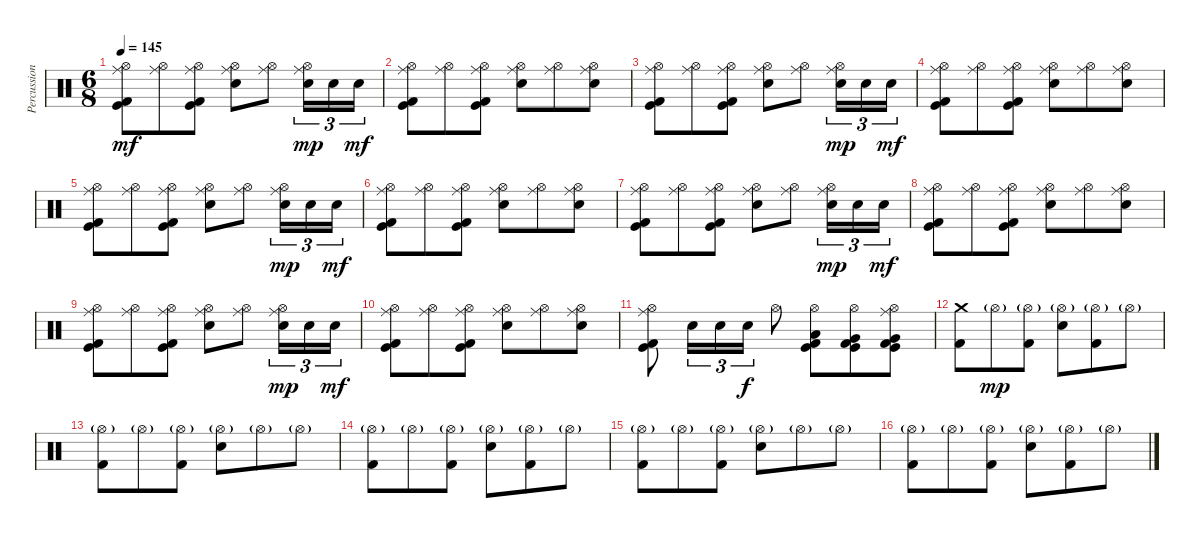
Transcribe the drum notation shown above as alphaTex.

\track ("Percussion" "Percussion") {instrument percussion}
\staff {score}
\articulation defaults
\ts (6 8)
\tempo 145
\clef neutral
\ks c
("Ride (middle)" "Hi-Hat (open)" "Kick (hit)" "Kick (hit) 2").8{dy mf} ("Ride (middle)" "Hi-Hat (open)").8 ("Ride (middle)" "Hi-Hat (open)" "Kick (hit)" "Kick (hit) 2").8 ("Ride (middle)" "Hi-Hat (open)" "Electric Snare (hit)").8 ("Ride (middle)" "Hi-Hat (open)").8 ("Ride (middle)" "Hi-Hat (open)" "Electric Snare (hit)").16{tu (3 2) dy mp} "Electric Snare (hit)".16{tu (3 2)} "Electric Snare (hit)".16{tu (3 2) dy mf} |
("Ride (middle)" "Hi-Hat (open)" "Kick (hit)" "Kick (hit) 2").8 ("Ride (middle)" "Hi-Hat (open)").8 ("Ride (middle)" "Hi-Hat (open)" "Kick (hit)" "Kick (hit) 2").8 ("Ride (middle)" "Hi-Hat (open)" "Electric Snare (hit)").8 ("Ride (middle)" "Hi-Hat (open)").8 ("Ride (middle)" "Hi-Hat (open)" "Electric Snare (hit)").8 |
("Ride (middle)" "Hi-Hat (open)" "Kick (hit)" "Kick (hit) 2").8 ("Ride (middle)" "Hi-Hat (open)").8 ("Ride (middle)" "Hi-Hat (open)" "Kick (hit)" "Kick (hit) 2").8 ("Ride (middle)" "Hi-Hat (open)" "Electric Snare (hit)").8 ("Ride (middle)" "Hi-Hat (open)").8 ("Ride (middle)" "Hi-Hat (open)" "Electric Snare (hit)").16{tu (3 2) dy mp} "Electric Snare (hit)".16{tu (3 2)} "Electric Snare (hit)".16{tu (3 2) dy mf} |
("Ride (middle)" "Hi-Hat (open)" "Kick (hit)" "Kick (hit) 2").8 ("Ride (middle)" "Hi-Hat (open)").8 ("Ride (middle)" "Hi-Hat (open)" "Kick (hit)" "Kick (hit) 2").8 ("Ride (middle)" "Hi-Hat (open)" "Electric Snare (hit)").8 ("Ride (middle)" "Hi-Hat (open)").8 ("Ride (middle)" "Hi-Hat (open)" "Electric Snare (hit)").8 |
("Ride (middle)" "Hi-Hat (open)" "Kick (hit)" "Kick (hit) 2").8 ("Ride (middle)" "Hi-Hat (open)").8 ("Ride (middle)" "Hi-Hat (open)" "Kick (hit)" "Kick (hit) 2").8 ("Ride (middle)" "Hi-Hat (open)" "Electric Snare (hit)").8 ("Ride (middle)" "Hi-Hat (open)").8 ("Ride (middle)" "Hi-Hat (open)" "Electric Snare (hit)").16{tu (3 2) dy mp} "Electric Snare (hit)".16{tu (3 2)} "Electric Snare (hit)".16{tu (3 2) dy mf} |
("Ride (middle)" "Hi-Hat (open)" "Kick (hit)" "Kick (hit) 2").8 ("Ride (middle)" "Hi-Hat (open)").8 ("Ride (middle)" "Hi-Hat (open)" "Kick (hit)" "Kick (hit) 2").8 ("Ride (middle)" "Hi-Hat (open)" "Electric Snare (hit)").8 ("Ride (middle)" "Hi-Hat (open)").8 ("Ride (middle)" "Hi-Hat (open)" "Electric Snare (hit)").8 |
("Ride (middle)" "Hi-Hat (open)" "Kick (hit)" "Kick (hit) 2").8 ("Ride (middle)" "Hi-Hat (open)").8 ("Ride (middle)" "Hi-Hat (open)" "Kick (hit)" "Kick (hit) 2").8 ("Ride (middle)" "Hi-Hat (open)" "Electric Snare (hit)").8 ("Ride (middle)" "Hi-Hat (open)").8 ("Ride (middle)" "Hi-Hat (open)" "Electric Snare (hit)").16{tu (3 2) dy mp} "Electric Snare (hit)".16{tu (3 2)} "Electric Snare (hit)".16{tu (3 2) dy mf} |
("Ride (middle)" "Hi-Hat (open)" "Kick (hit)" "Kick (hit) 2").8 ("Ride (middle)" "Hi-Hat (open)").8 ("Ride (middle)" "Hi-Hat (open)" "Kick (hit)" "Kick (hit) 2").8 ("Ride (middle)" "Hi-Hat (open)" "Electric Snare (hit)").8 ("Ride (middle)" "Hi-Hat (open)").8 ("Ride (middle)" "Hi-Hat (open)" "Electric Snare (hit)").8 |
("Ride (middle)" "Hi-Hat (open)" "Kick (hit)" "Kick (hit) 2").8 ("Ride (middle)" "Hi-Hat (open)").8 ("Ride (middle)" "Hi-Hat (open)" "Kick (hit)" "Kick (hit) 2").8 ("Ride (middle)" "Hi-Hat (open)" "Electric Snare (hit)").8 ("Ride (middle)" "Hi-Hat (open)").8 ("Ride (middle)" "Hi-Hat (open)" "Electric Snare (hit)").16{tu (3 2) dy mp} "Electric Snare (hit)".16{tu (3 2)} "Electric Snare (hit)".16{tu (3 2) dy mf} |
("Ride (middle)" "Hi-Hat (open)" "Kick (hit)" "Kick (hit) 2").8 ("Ride (middle)" "Hi-Hat (open)").8 ("Ride (middle)" "Hi-Hat (open)" "Kick (hit)" "Kick (hit) 2").8 ("Ride (middle)" "Hi-Hat (open)" "Electric Snare (hit)").8 ("Ride (middle)" "Hi-Hat (open)").8 ("Ride (middle)" "Hi-Hat (open)" "Electric Snare (hit)").8 |
("Ride (middle)" "Hi-Hat (open)" "Kick (hit)" "Kick (hit) 2").8 "Electric Snare (hit)".16{tu (3 2)} "Electric Snare (hit)".16{tu (3 2)} "Electric Snare (hit)".16{tu (3 2) dy f} "Hi-Hat (open)".8 ("Hi-Hat (open)" "Low Tom (hit)" "Kick (hit)" "Kick (hit) 2").8 ("Hi-Hat (open)" "Very Low Tom (hit)" "Kick (hit)" "Kick (hit) 2").8 ("Ride (middle)" "Hi-Hat (open)" "Very Low Tom (hit)" "Kick (hit)" "Kick (hit) 2").8 |
("Crash medium (hit)" "Kick (hit) 2").8 "Hi-Hat (open)"{g}.8{dy mp} ("Hi-Hat (open)"{g} "Kick (hit) 2").8 ("Hi-Hat (open)"{g} "Electric Snare (hit)").8 ("Hi-Hat (open)"{g} "Kick (hit) 2").8 "Hi-Hat (open)"{g}.8 |
("Hi-Hat (open)"{g} "Kick (hit) 2").8 "Hi-Hat (open)"{g}.8 ("Hi-Hat (open)"{g} "Kick (hit) 2").8 ("Hi-Hat (open)"{g} "Electric Snare (hit)").8 "Hi-Hat (open)"{g}.8 "Hi-Hat (open)"{g}.8 |
("Hi-Hat (open)"{g} "Kick (hit) 2").8 "Hi-Hat (open)"{g}.8 ("Hi-Hat (open)"{g} "Kick (hit) 2").8 ("Hi-Hat (open)"{g} "Electric Snare (hit)").8 ("Hi-Hat (open)"{g} "Kick (hit) 2").8 "Hi-Hat (open)"{g}.8 |
("Hi-Hat (open)"{g} "Kick (hit) 2").8 "Hi-Hat (open)"{g}.8 ("Hi-Hat (open)"{g} "Kick (hit) 2").8 ("Hi-Hat (open)"{g} "Electric Snare (hit)").8 "Hi-Hat (open)"{g}.8 "Hi-Hat (open)"{g}.8 |
("Hi-Hat (open)"{g} "Kick (hit) 2").8 "Hi-Hat (open)"{g}.8 ("Hi-Hat (open)"{g} "Kick (hit) 2").8 ("Hi-Hat (open)"{g} "Electric Snare (hit)").8 ("Hi-Hat (open)"{g} "Kick (hit) 2").8 "Hi-Hat (open)"{g}.8
